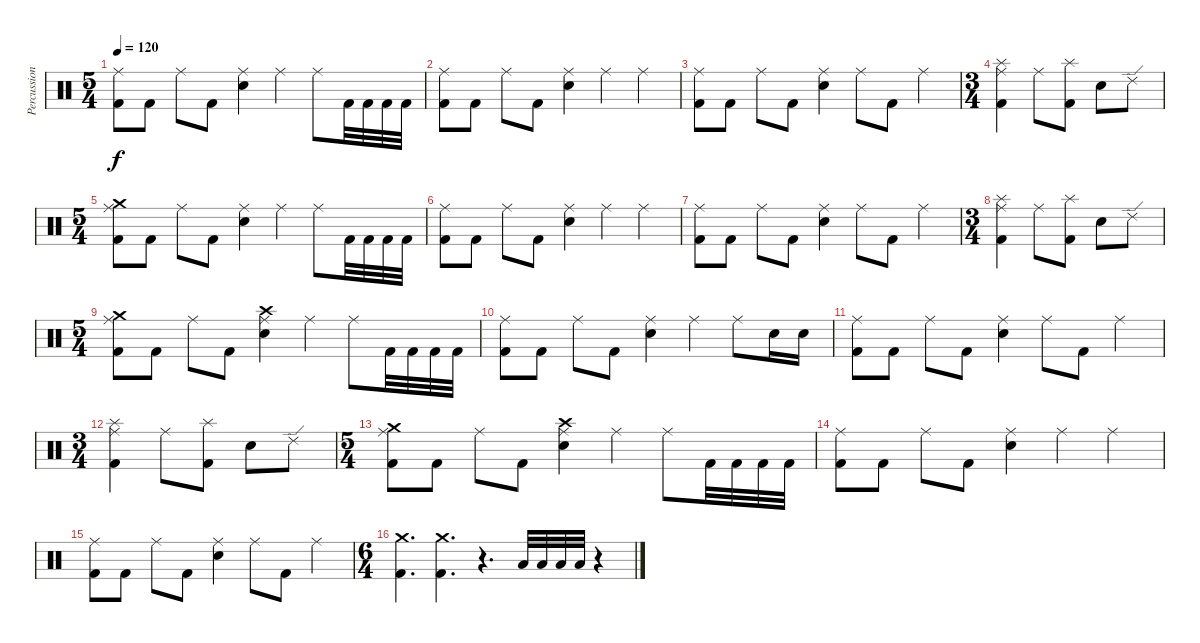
\track ("Percussion" "Percussion") {instrument percussion}
\staff {score}
\articulation defaults
\ts (5 4)
\tempo 120
\clef neutral
\ks c
("Ride (middle)" "Kick (hit) 2").8{dy f} "Kick (hit) 2".8 "Ride (middle)".8 "Kick (hit) 2".8 ("Ride (middle)" "Electric Snare (hit)").4 "Ride (middle)".4 "Ride (middle)".8 "Kick (hit) 2".32 "Kick (hit) 2".32 "Kick (hit) 2".32 "Kick (hit) 2".32 |
("Ride (middle)" "Kick (hit) 2").8 "Kick (hit) 2".8 "Ride (middle)".8 "Kick (hit) 2".8 ("Ride (middle)" "Electric Snare (hit)").4 "Ride (middle)".4 "Ride (middle)".4 |
("Ride (middle)" "Kick (hit) 2").8 "Kick (hit) 2".8 "Ride (middle)".8 "Kick (hit) 2".8 ("Ride (middle)" "Electric Snare (hit)").4 "Ride (middle)".8 "Kick (hit) 2".8 "Ride (middle)".4 |
\ts (3 4)
("Splash (hit)" "Ride (middle)" "Kick (hit) 2").4 "Ride (middle)".8 ("Splash (hit)" "Kick (hit) 2").8 "Electric Snare (hit)".8 "Ride (edge) 2".8 |
\ts (5 4)
("Crash medium (hit)" "Ride (middle)" "Kick (hit) 2").8 "Kick (hit) 2".8 "Ride (middle)".8 "Kick (hit) 2".8 ("Ride (middle)" "Electric Snare (hit)").4 "Ride (middle)".4 "Ride (middle)".8 "Kick (hit) 2".32 "Kick (hit) 2".32 "Kick (hit) 2".32 "Kick (hit) 2".32 |
("Ride (middle)" "Kick (hit) 2").8 "Kick (hit) 2".8 "Ride (middle)".8 "Kick (hit) 2".8 ("Ride (middle)" "Electric Snare (hit)").4 "Ride (middle)".4 "Ride (middle)".4 |
("Ride (middle)" "Kick (hit) 2").8 "Kick (hit) 2".8 "Ride (middle)".8 "Kick (hit) 2".8 ("Ride (middle)" "Electric Snare (hit)").4 "Ride (middle)".8 "Kick (hit) 2".8 "Ride (middle)".4 |
\ts (3 4)
("Splash (hit)" "Ride (middle)" "Kick (hit) 2").4 "Ride (middle)".8 ("Splash (hit)" "Kick (hit) 2").8 "Electric Snare (hit)".8 "Ride (edge) 2".8 |
\ts (5 4)
("Crash medium (hit)" "Ride (middle)" "Kick (hit) 2").8 "Kick (hit) 2".8 "Ride (middle)".8 "Kick (hit) 2".8 ("Crash high (hit)" "Ride (middle)" "Electric Snare (hit)").4 "Ride (middle)".4 "Ride (middle)".8 "Kick (hit) 2".32 "Kick (hit) 2".32 "Kick (hit) 2".32 "Kick (hit) 2".32 |
("Ride (middle)" "Kick (hit) 2").8 "Kick (hit) 2".8 "Ride (middle)".8 "Kick (hit) 2".8 ("Ride (middle)" "Electric Snare (hit)").4 "Ride (middle)".4 "Ride (middle)".8 "Electric Snare (hit)".16 "Electric Snare (hit)".16 |
("Ride (middle)" "Kick (hit) 2").8 "Kick (hit) 2".8 "Ride (middle)".8 "Kick (hit) 2".8 ("Ride (middle)" "Electric Snare (hit)").4 "Ride (middle)".8 "Kick (hit) 2".8 "Ride (middle)".4 |
\ts (3 4)
("Splash (hit)" "Ride (middle)" "Kick (hit) 2").4 "Ride (middle)".8 ("Splash (hit)" "Kick (hit) 2").8 "Electric Snare (hit)".8 "Ride (edge) 2".8 |
\ts (5 4)
("Crash medium (hit)" "Ride (middle)" "Kick (hit) 2").8 "Kick (hit) 2".8 "Ride (middle)".8 "Kick (hit) 2".8 ("Crash high (hit)" "Ride (middle)" "Electric Snare (hit)").4 "Ride (middle)".4 "Ride (middle)".8 "Kick (hit) 2".32 "Kick (hit) 2".32 "Kick (hit) 2".32 "Kick (hit) 2".32 |
("Ride (middle)" "Kick (hit) 2").8 "Kick (hit) 2".8 "Ride (middle)".8 "Kick (hit) 2".8 ("Ride (middle)" "Electric Snare (hit)").4 "Ride (middle)".4 "Ride (middle)".4 |
("Ride (middle)" "Kick (hit) 2").8 "Kick (hit) 2".8 "Ride (middle)".8 "Kick (hit) 2".8 ("Ride (middle)" "Electric Snare (hit)").4 "Ride (middle)".8 "Kick (hit) 2".8 "Ride (middle)".4 |
\ts (6 4)
("Crash medium (hit)" "Kick (hit) 2").4{d} ("Crash medium (hit)" "Kick (hit) 2").4{d} r.4{d} "Low Tom (hit)".32 "Low Tom (hit)".32 "Low Tom (hit)".32 "Low Floor Tom (hit)".32 r.4
